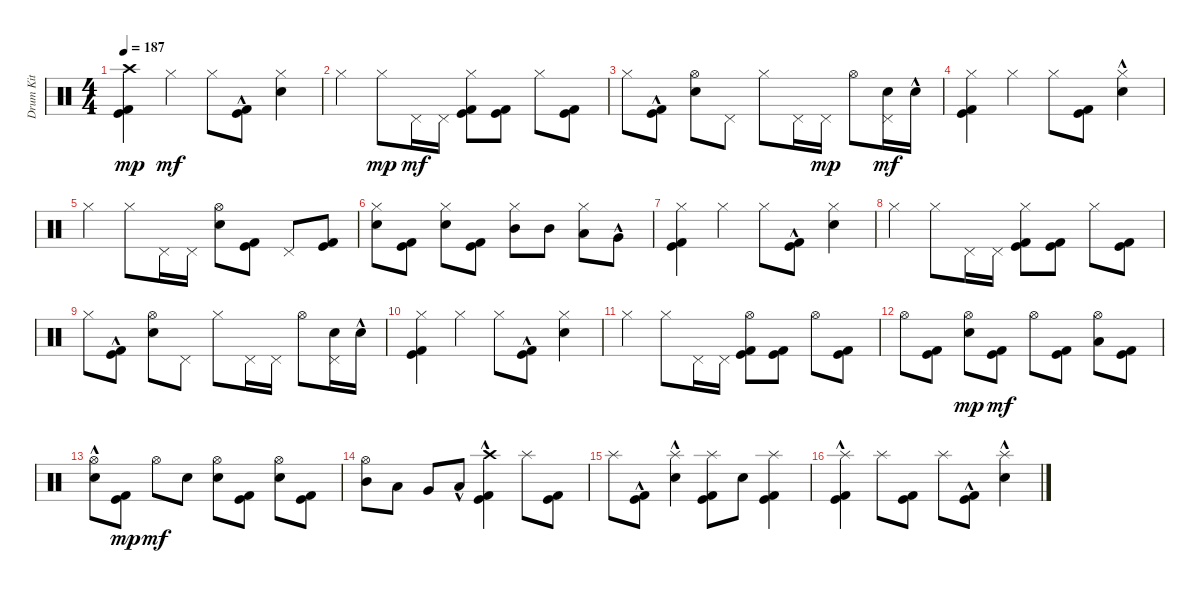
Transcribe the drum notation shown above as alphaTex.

\track ("Drum Kit" "Drum Kit") {instrument percussion}
\staff {score}
\articulation defaults
\ts (4 4)
\tempo 187
\clef neutral
\ks c
("Kick (hit) 2" "Kick (hit)" "Crash high (hit)").4{dy mp} "Hi-Hat (closed)".4{dy mf} "Hi-Hat (closed)".8 ("Kick (hit) 2"{hac} "Kick (hit)"{hac}).8 ("Electric Snare (hit)" "Hi-Hat (closed)").4 |
"Hi-Hat (closed)".4 "Hi-Hat (closed)".8{dy mp} "Pedal Hi-Hat (hit)".16{dy mf} "Pedal Hi-Hat (hit)".16 ("Kick (hit) 2" "Kick (hit)" "Hi-Hat (closed)").8 ("Kick (hit) 2" "Kick (hit)").8 "Hi-Hat (closed)".8 ("Kick (hit) 2" "Kick (hit)").8 |
"Hi-Hat (closed)".8 ("Kick (hit) 2"{hac} "Kick (hit)"{hac}).8 ("Electric Snare (hit)" "Hi-Hat (open)").8 "Pedal Hi-Hat (hit)".8 "Hi-Hat (closed)".8 "Pedal Hi-Hat (hit)".16 "Pedal Hi-Hat (hit)".16{dy mp} "Hi-Hat (open)".8 ("Pedal Hi-Hat (hit)" "Electric Snare (hit)").16{dy mf} "Electric Snare (hit)"{hac}.16 |
("Kick (hit) 2" "Kick (hit)" "Hi-Hat (closed)").4 "Hi-Hat (closed)".4 "Hi-Hat (closed)".8 ("Kick (hit) 2" "Kick (hit)").8 ("Electric Snare (hit)"{hac} "Hi-Hat (closed)").4 |
"Hi-Hat (closed)".4 "Hi-Hat (closed)".8 "Pedal Hi-Hat (hit)".16 "Pedal Hi-Hat (hit)".16 ("Electric Snare (hit)" "Hi-Hat (open)").8 ("Kick (hit) 2" "Kick (hit)").8 "Pedal Hi-Hat (hit)".8 ("Kick (hit) 2" "Kick (hit)").8 |
("Electric Snare (hit)" "Hi-Hat (closed)").8 ("Kick (hit) 2" "Kick (hit)").8 ("Electric Snare (hit)" "Hi-Hat (closed)").8 ("Kick (hit) 2" "Kick (hit)").8 ("Mid Tom (hit)" "Hi-Hat (closed)").8 "Mid Tom (hit)".8 ("Low Tom (hit)" "Hi-Hat (closed)").8 "Very Low Tom (hit)"{hac}.8 |
("Kick (hit) 2" "Kick (hit)" "Hi-Hat (closed)").4 "Hi-Hat (closed)".4 "Hi-Hat (closed)".8 ("Kick (hit) 2"{hac} "Kick (hit)"{hac}).8 ("Electric Snare (hit)" "Hi-Hat (closed)").4 |
"Hi-Hat (closed)".4 "Hi-Hat (closed)".8 "Pedal Hi-Hat (hit)".16 "Pedal Hi-Hat (hit)".16 ("Kick (hit) 2" "Kick (hit)" "Hi-Hat (closed)").8 ("Kick (hit) 2" "Kick (hit)").8 "Hi-Hat (closed)".8 ("Kick (hit) 2" "Kick (hit)").8 |
"Hi-Hat (closed)".8 ("Kick (hit) 2"{hac} "Kick (hit)"{hac}).8 ("Electric Snare (hit)" "Hi-Hat (open)").8 "Pedal Hi-Hat (hit)".8 "Hi-Hat (closed)".8 "Pedal Hi-Hat (hit)".16 "Pedal Hi-Hat (hit)".16 "Hi-Hat (open)".8 ("Pedal Hi-Hat (hit)" "Electric Snare (hit)").16 "Electric Snare (hit)"{hac}.16 |
("Kick (hit) 2" "Kick (hit)" "Hi-Hat (closed)").4 "Hi-Hat (closed)".4 "Hi-Hat (closed)".8 ("Kick (hit) 2"{hac} "Kick (hit)"{hac}).8 ("Electric Snare (hit)" "Hi-Hat (closed)").4 |
"Hi-Hat (closed)".4 "Hi-Hat (closed)".8 "Pedal Hi-Hat (hit)".16 "Pedal Hi-Hat (hit)".16 ("Kick (hit) 2" "Kick (hit)" "Hi-Hat (open)").8 ("Kick (hit) 2" "Kick (hit)").8 "Hi-Hat (open)".8 ("Kick (hit) 2" "Kick (hit)").8 |
"Hi-Hat (open)".8 ("Kick (hit) 2" "Kick (hit)").8 ("Electric Snare (hit)" "Hi-Hat (open)").8{dy mp} ("Kick (hit) 2" "Kick (hit)").8{dy mf} "Hi-Hat (open)".8 ("Kick (hit) 2" "Kick (hit)").8 ("Low Tom (hit)" "Hi-Hat (open)").8 ("Kick (hit) 2" "Kick (hit)").8 |
("Electric Snare (hit)"{hac} "Hi-Hat (open)").8 ("Kick (hit) 2" "Kick (hit)").8{dy mp} "Hi-Hat (open)".8{dy mf} "Electric Snare (hit)".8 ("Electric Snare (hit)" "Hi-Hat (open)").8 ("Kick (hit) 2" "Kick (hit)").8 ("Electric Snare (hit)" "Hi-Hat (open)").8 ("Kick (hit) 2" "Kick (hit)").8 |
("Mid Tom (hit)" "Hi-Hat (open)").8 "Low Tom (hit)".8 "Very Low Tom (hit)".8 "Low Floor Tom (hit)"{hac}.8 ("Kick (hit) 2"{hac} "Kick (hit)"{hac} "Crash high (hit)").4 "Splash (hit)".8 ("Kick (hit) 2" "Kick (hit)").8 |
"Splash (hit)".8 ("Kick (hit) 2"{hac} "Kick (hit)"{hac}).8 ("Electric Snare (hit)"{hac} "Splash (hit)").4 ("Kick (hit) 2" "Kick (hit)" "Splash (hit)").8 "Electric Snare (hit)".8 ("Kick (hit) 2" "Kick (hit)" "Splash (hit)").4 |
("Kick (hit) 2"{hac} "Kick (hit)"{hac} "Splash (hit)").4 "Splash (hit)".8 ("Kick (hit) 2" "Kick (hit)").8 "Splash (hit)".8 ("Kick (hit) 2"{hac} "Kick (hit)"{hac}).8 ("Electric Snare (hit)"{hac} "Splash (hit)").4
